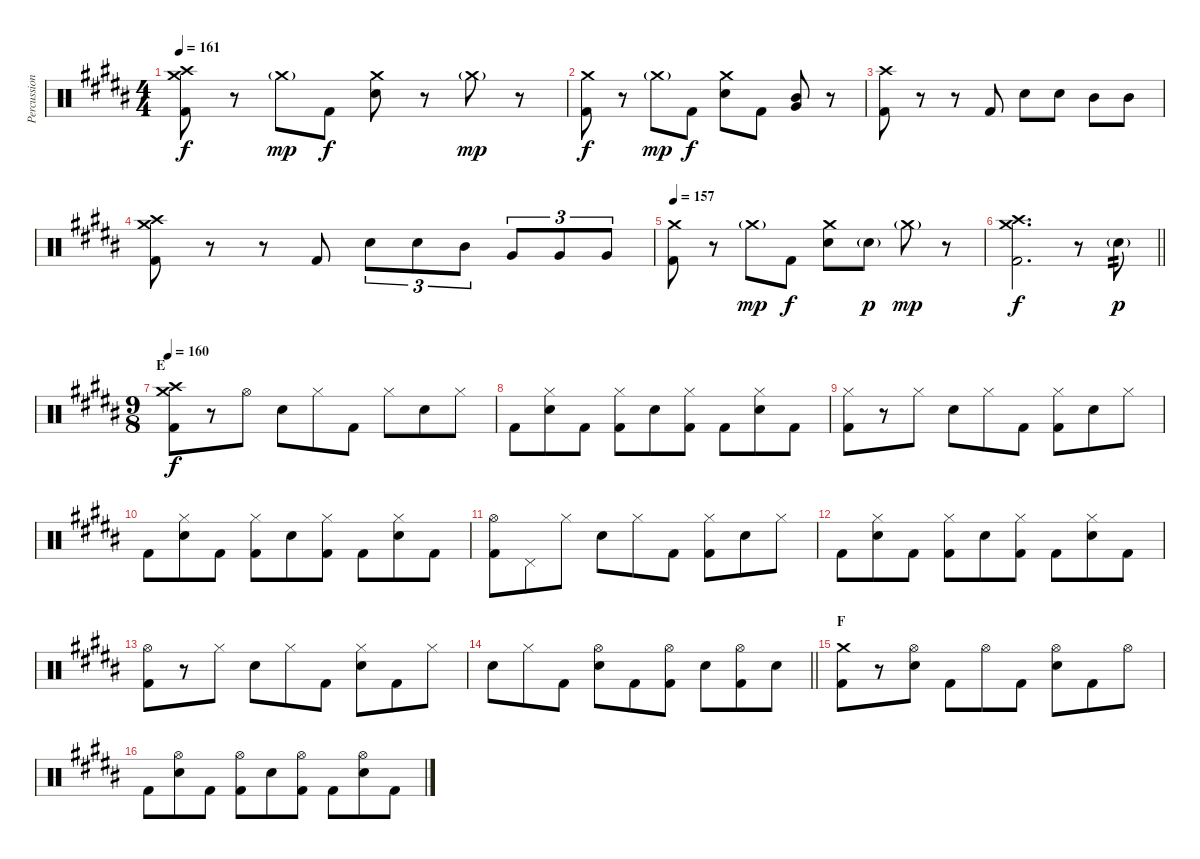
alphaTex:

\track ("Percussion" "Percussion") {instrument percussion}
\staff {score}
\articulation defaults
\ts (4 4)
\tempo 161
\clef neutral
\ks g#minor
("Crash medium (hit)" "Crash high (hit)" "Kick (hit) 2").8{dy f} r.8 "Crash medium (hit)"{g}.8{dy mp} "Kick (hit) 2".8{dy f} ("Crash medium (hit)" "Snare (hit) 2").8 r.8 "Crash medium (hit)"{g}.8{dy mp} r.8 |
("Crash medium (hit)" "Kick (hit) 2").8{dy f} r.8 "Crash medium (hit)"{g}.8{dy mp} "Kick (hit) 2".8{dy f} ("Crash medium (hit)" "Snare (hit) 2").8 "Kick (hit) 2".8 ("Mid Tom (hit)" "Very Low Tom (hit)").8{bu 60} r.8 |
("Crash high (hit)" "Kick (hit) 2").8 r.8 r.8 "Kick (hit) 2".8 "Snare (hit) 2".8 "Snare (hit) 2".8 "Mid Tom (hit)".8 "Mid Tom (hit)".8 |
("Crash medium (hit)" "Crash high (hit)" "Kick (hit) 2").8 r.8 r.8 "Kick (hit) 2".8 "Snare (hit) 2".8{tu (3 2)} "Snare (hit) 2".8{tu (3 2)} "Mid Tom (hit)".8{tu (3 2)} "Very Low Tom (hit)".8{tu (3 2)} "Very Low Tom (hit)".8{tu (3 2)} "Very Low Tom (hit)".8{tu (3 2)} |
\tempo 157
("Crash medium (hit)" "Kick (hit) 2").8 r.8 "Crash medium (hit)"{g}.8{dy mp} "Kick (hit) 2".8{dy f} ("Crash medium (hit)" "Snare (hit) 2").8 "Snare (hit) 2"{g}.8{dy p} "Crash medium (hit)"{g}.8{dy mp} r.8 |
\barLineRight lightlight
("Crash medium (hit)" "Crash high (hit)" "Kick (hit) 2").2{d dy f} r.8 "Snare (hit) 2"{g}.8{tp 2 dy p} |
\ts (9 8)
\section ("" "E")
\tempo 160
("Crash medium (hit)" "Crash high (hit)" "Kick (hit) 2").8{dy f} r.8 "Hi-Hat (open)".8 "Snare (hit) 2".8 "Hi-Hat (closed)".8 "Kick (hit) 2".8 "Hi-Hat (closed)".8 "Snare (hit) 2".8 "Hi-Hat (closed)".8 |
"Kick (hit) 2".8 ("Hi-Hat (closed)" "Snare (hit) 2").8 "Kick (hit) 2".8 ("Hi-Hat (closed)" "Kick (hit) 2").8 "Snare (hit) 2".8 ("Hi-Hat (closed)" "Kick (hit) 2").8 "Kick (hit) 2".8 ("Hi-Hat (closed)" "Snare (hit) 2").8 "Kick (hit) 2".8 |
("Hi-Hat (closed)" "Kick (hit) 2").8 r.8 "Hi-Hat (closed)".8 "Snare (hit) 2".8 "Hi-Hat (closed)".8 "Kick (hit) 2".8 ("Hi-Hat (closed)" "Kick (hit) 2").8 "Snare (hit) 2".8 "Hi-Hat (closed)".8 |
"Kick (hit) 2".8 ("Hi-Hat (closed)" "Snare (hit) 2").8 "Kick (hit) 2".8 ("Hi-Hat (closed)" "Kick (hit) 2").8 "Snare (hit) 2".8 ("Hi-Hat (closed)" "Kick (hit) 2").8 "Kick (hit) 2".8 ("Hi-Hat (closed)" "Snare (hit) 2").8 "Kick (hit) 2".8 |
("Hi-Hat (open)" "Kick (hit) 2").8 "Pedal Hi-Hat (hit)".8 "Hi-Hat (closed)".8 "Snare (hit) 2".8 "Hi-Hat (closed)".8 "Kick (hit) 2".8 ("Hi-Hat (closed)" "Kick (hit) 2").8 "Snare (hit) 2".8 "Hi-Hat (closed)".8 |
"Kick (hit) 2".8 ("Hi-Hat (closed)" "Snare (hit) 2").8 "Kick (hit) 2".8 ("Hi-Hat (closed)" "Kick (hit) 2").8 "Snare (hit) 2".8 ("Hi-Hat (closed)" "Kick (hit) 2").8 "Kick (hit) 2".8 ("Hi-Hat (closed)" "Snare (hit) 2").8 "Kick (hit) 2".8 |
("Hi-Hat (open)" "Kick (hit) 2").8 r.8 "Hi-Hat (closed)".8 "Snare (hit) 2".8 "Hi-Hat (closed)".8 "Kick (hit) 2".8 ("Hi-Hat (closed)" "Snare (hit) 2").8 "Kick (hit) 2".8 "Hi-Hat (closed)".8 |
\barLineRight lightlight "Snare (hit) 2".8 "Hi-Hat (closed)".8 "Kick (hit) 2".8
("Hi-Hat (open)" "Snare (hit) 2").8 "Kick (hit) 2".8 ("Hi-Hat (open)" "Kick (hit) 2").8 "Snare (hit) 2".8 ("Hi-Hat (open)" "Kick (hit) 2").8 "Snare (hit) 2".8 |
\section ("" "F")
("Crash medium (hit)" "Kick (hit) 2").8 r.8 ("Hi-Hat (open)" "Snare (hit) 2").8 "Kick (hit) 2".8 "Hi-Hat (open)".8 "Kick (hit) 2".8 ("Hi-Hat (open)" "Snare (hit) 2").8 "Kick (hit) 2".8 "Hi-Hat (open)".8 |
"Kick (hit) 2".8 ("Hi-Hat (open)" "Snare (hit) 2").8 "Kick (hit) 2".8 ("Hi-Hat (open)" "Kick (hit) 2").8 "Snare (hit) 2".8 ("Hi-Hat (open)" "Kick (hit) 2").8 "Kick (hit) 2".8 ("Hi-Hat (open)" "Snare (hit) 2").8 "Kick (hit) 2".8
